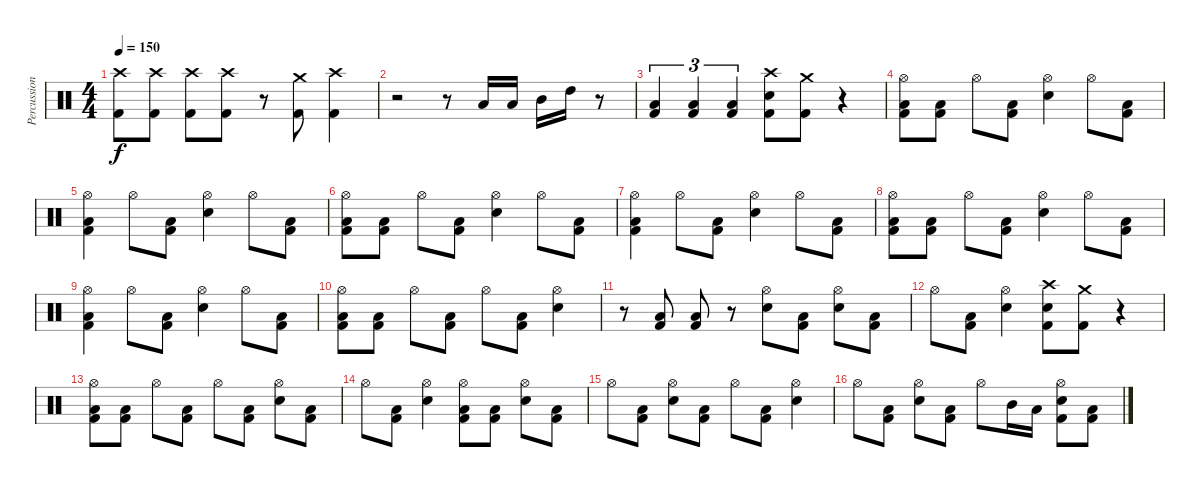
\track ("Percussions" "Percussion") {instrument percussion}
\staff {score}
\articulation defaults
\ts (4 4)
\tempo 150
\clef neutral
\ks c
("Crash high (hit)" "Kick (hit) 2").8{dy f} ("Crash high (hit)" "Kick (hit) 2").8 ("Crash high (hit)" "Kick (hit) 2").8 ("Crash high (hit)" "Kick (hit) 2").8 r.8 ("Crash medium (hit)" "Kick (hit) 2").8 ("Crash high (hit)" "Kick (hit) 2").4 |
r.2 r.8 "Low Tom (hit)".16 "Low Tom (hit)".16 "Mid Tom (hit)".16 "High Tom (hit)".16 r.8 |
("Low Floor Tom (hit)" "Kick (hit) 2").4{tu (3 2)} ("Low Floor Tom (hit)" "Kick (hit) 2").4{tu (3 2)} ("Low Floor Tom (hit)" "Kick (hit) 2").4{tu (3 2)} ("Crash high (hit)" "Snare (hit) 2" "Kick (hit) 2").8 ("Crash medium (hit)" "Kick (hit) 2").8 r.4 |
("Hi-Hat (open)" "Low Floor Tom (hit)" "Kick (hit) 2").8 ("Low Floor Tom (hit)" "Kick (hit) 2").8 "Hi-Hat (open)".8 ("Low Floor Tom (hit)" "Kick (hit) 2").8 ("Hi-Hat (open)" "Snare (hit) 2").4 "Hi-Hat (open)".8 ("Low Floor Tom (hit)" "Kick (hit) 2").8 |
("Hi-Hat (open)" "Low Floor Tom (hit)" "Kick (hit) 2").4 "Hi-Hat (open)".8 ("Low Floor Tom (hit)" "Kick (hit) 2").8 ("Hi-Hat (open)" "Snare (hit) 2").4 "Hi-Hat (open)".8 ("Low Floor Tom (hit)" "Kick (hit) 2").8 |
("Hi-Hat (open)" "Low Floor Tom (hit)" "Kick (hit) 2").8 ("Low Floor Tom (hit)" "Kick (hit) 2").8 "Hi-Hat (open)".8 ("Low Floor Tom (hit)" "Kick (hit) 2").8 ("Hi-Hat (open)" "Snare (hit) 2").4 "Hi-Hat (open)".8 ("Low Floor Tom (hit)" "Kick (hit) 2").8 |
("Hi-Hat (open)" "Low Floor Tom (hit)" "Kick (hit) 2").4 "Hi-Hat (open)".8 ("Low Floor Tom (hit)" "Kick (hit) 2").8 ("Hi-Hat (open)" "Snare (hit) 2").4 "Hi-Hat (open)".8 ("Low Floor Tom (hit)" "Kick (hit) 2").8 |
("Hi-Hat (open)" "Low Floor Tom (hit)" "Kick (hit) 2").8 ("Low Floor Tom (hit)" "Kick (hit) 2").8 "Hi-Hat (open)".8 ("Low Floor Tom (hit)" "Kick (hit) 2").8 ("Hi-Hat (open)" "Snare (hit) 2").4 "Hi-Hat (open)".8 ("Low Floor Tom (hit)" "Kick (hit) 2").8 |
("Hi-Hat (open)" "Low Floor Tom (hit)" "Kick (hit) 2").4 "Hi-Hat (open)".8 ("Low Floor Tom (hit)" "Kick (hit) 2").8 ("Hi-Hat (open)" "Snare (hit) 2").4 "Hi-Hat (open)".8 ("Low Floor Tom (hit)" "Kick (hit) 2").8 |
("Hi-Hat (open)" "Low Floor Tom (hit)" "Kick (hit) 2").8 ("Low Floor Tom (hit)" "Kick (hit) 2").8 "Hi-Hat (open)".8 ("Low Floor Tom (hit)" "Kick (hit) 2").8 "Hi-Hat (open)".8 ("Low Floor Tom (hit)" "Kick (hit) 2").8 ("Hi-Hat (open)" "Snare (hit) 2").4 |
r.8 ("Low Floor Tom (hit)" "Kick (hit) 2").8 ("Low Floor Tom (hit)" "Kick (hit) 2").8 r.8 ("Hi-Hat (open)" "Snare (hit) 2").8 ("Low Floor Tom (hit)" "Kick (hit) 2").8 ("Hi-Hat (open)" "Snare (hit) 2").8 ("Low Floor Tom (hit)" "Kick (hit) 2").8 |
"Hi-Hat (open)".8 ("Low Floor Tom (hit)" "Kick (hit) 2").8 ("Hi-Hat (open)" "Snare (hit) 2").4 ("Crash high (hit)" "Snare (hit) 2" "Kick (hit) 2").8 ("Crash medium (hit)" "Kick (hit) 2").8 r.4 |
("Hi-Hat (open)" "Low Floor Tom (hit)" "Kick (hit) 2").8 ("Low Floor Tom (hit)" "Kick (hit) 2").8 "Hi-Hat (open)".8 ("Low Floor Tom (hit)" "Kick (hit) 2").8 "Hi-Hat (open)".8 ("Low Floor Tom (hit)" "Kick (hit) 2").8 ("Hi-Hat (open)" "Snare (hit) 2").8 ("Low Floor Tom (hit)" "Kick (hit) 2").8 |
"Hi-Hat (open)".8 ("Low Floor Tom (hit)" "Kick (hit) 2").8 ("Hi-Hat (open)" "Snare (hit) 2").4 ("Hi-Hat (open)" "Low Floor Tom (hit)" "Kick (hit) 2").8 ("Low Floor Tom (hit)" "Kick (hit) 2").8 ("Hi-Hat (open)" "Snare (hit) 2").8 ("Low Floor Tom (hit)" "Kick (hit) 2").8 |
"Hi-Hat (open)".8 ("Low Floor Tom (hit)" "Kick (hit) 2").8 ("Hi-Hat (open)" "Snare (hit) 2").8 ("Low Floor Tom (hit)" "Kick (hit) 2").8 "Hi-Hat (open)".8 ("Low Floor Tom (hit)" "Kick (hit) 2").8 ("Hi-Hat (open)" "Snare (hit) 2").4 |
"Hi-Hat (open)".8 ("Low Floor Tom (hit)" "Kick (hit) 2").8 ("Hi-Hat (open)" "Snare (hit) 2").8 ("Low Floor Tom (hit)" "Kick (hit) 2").8 "Hi-Hat (open)".8 "Mid Tom (hit)".16 "Low Tom (hit)".16 ("Hi-Hat (open)" "Snare (hit) 2" "Kick (hit) 2").8 ("Low Floor Tom (hit)" "Kick (hit) 2").8
